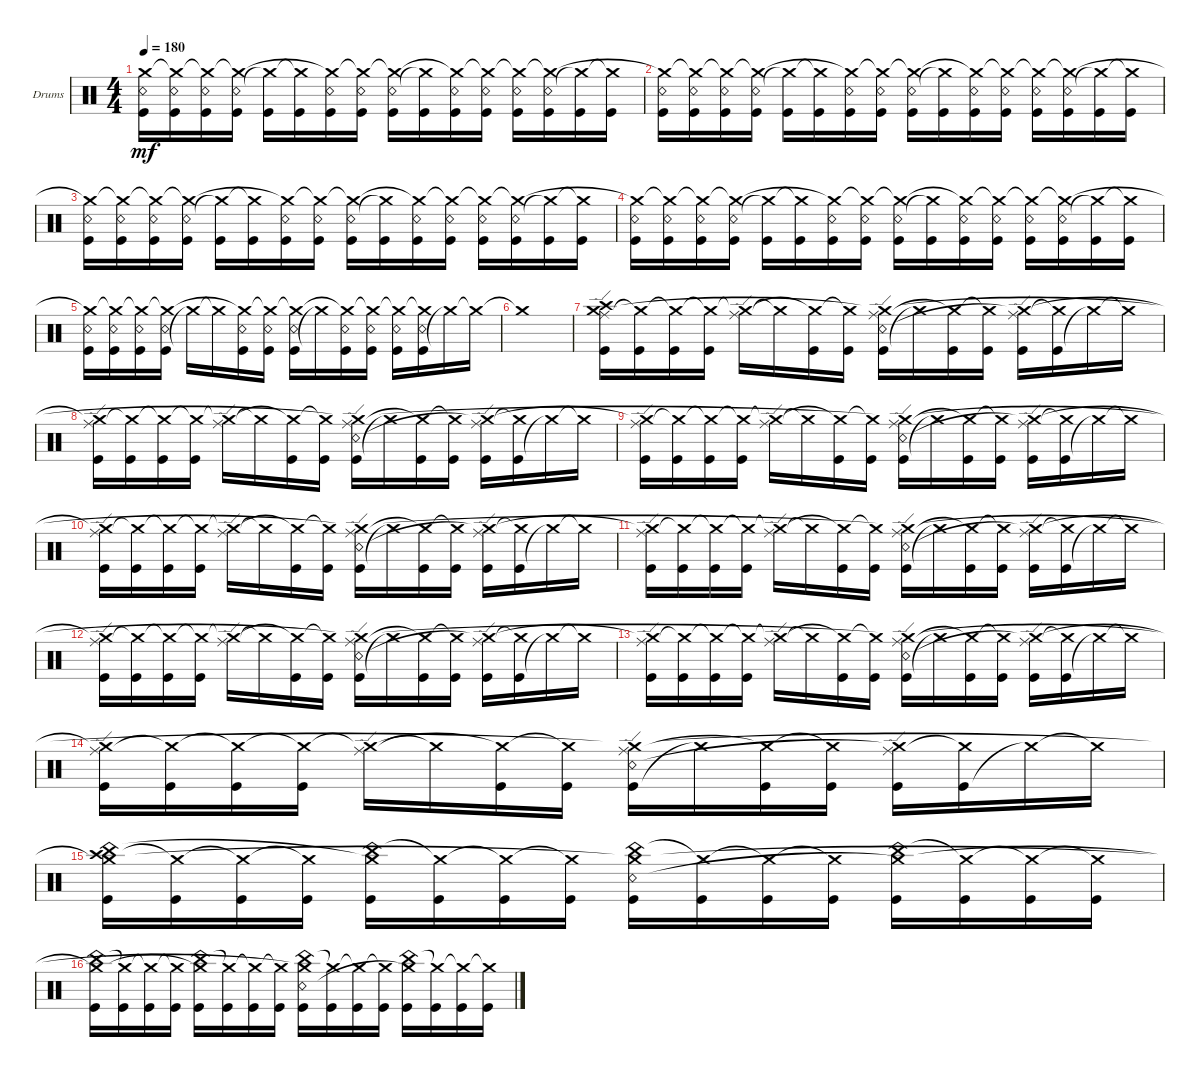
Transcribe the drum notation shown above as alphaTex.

\defaultSystemsLayout 4
\bracketExtendMode groupsimilarinstruments
\firstSystemTrackNameOrientation horizontal
\otherSystemsTrackNameOrientation horizontal
\track ("Drumkit" "Drums") {instrument percussion}
\staff {score}
\articulation defaults
\ts (4 4)
\tempo 180
\clef neutral
\ks c
("Kick (hit)" "Snare (rim shot)" "Crash medium (hit)"{t}).16{dy mf} ("Kick (hit)" "Snare (rim shot)" "Crash medium (hit)"{t}).16 ("Kick (hit)" "Snare (rim shot)" "Crash medium (hit)"{t}).16 ("Kick (hit)" "Snare (rim shot)" "Crash medium (hit)"{t}).16 ("Kick (hit)" "Crash medium (hit)"{t}).16 ("Kick (hit)" "Crash medium (hit)"{t}).16 ("Kick (hit)" "Snare (rim shot)" "Crash medium (hit)"{t}).16 ("Kick (hit)" "Snare (rim shot)" "Crash medium (hit)"{t}).16 ("Kick (hit)" "Snare (rim shot)" "Crash medium (hit)"{t}).16 ("Kick (hit)" "Crash medium (hit)"{t}).16 ("Kick (hit)" "Snare (rim shot)" "Crash medium (hit)"{t}).16 ("Kick (hit)" "Snare (rim shot)" "Crash medium (hit)"{t}).16 ("Kick (hit)" "Snare (rim shot)" "Crash medium (hit)"{t}).16 ("Kick (hit)" "Snare (rim shot)" "Crash medium (hit)"{t}).16 ("Kick (hit)" "Crash medium (hit)"{t}).16 ("Kick (hit)" "Crash medium (hit)"{t}).16 |
("Kick (hit)" "Snare (rim shot)" "Crash medium (hit)"{t}).16 ("Kick (hit)" "Snare (rim shot)" "Crash medium (hit)"{t}).16 ("Kick (hit)" "Snare (rim shot)" "Crash medium (hit)"{t}).16 ("Kick (hit)" "Snare (rim shot)" "Crash medium (hit)"{t}).16 ("Kick (hit)" "Crash medium (hit)"{t}).16 ("Kick (hit)" "Crash medium (hit)"{t}).16 ("Kick (hit)" "Snare (rim shot)" "Crash medium (hit)"{t}).16 ("Kick (hit)" "Snare (rim shot)" "Crash medium (hit)"{t}).16 ("Kick (hit)" "Snare (rim shot)" "Crash medium (hit)"{t}).16 ("Kick (hit)" "Crash medium (hit)"{t}).16 ("Kick (hit)" "Snare (rim shot)" "Crash medium (hit)"{t}).16 ("Kick (hit)" "Snare (rim shot)" "Crash medium (hit)"{t}).16 ("Kick (hit)" "Snare (rim shot)" "Crash medium (hit)"{t}).16 ("Kick (hit)" "Snare (rim shot)" "Crash medium (hit)"{t}).16 ("Kick (hit)" "Crash medium (hit)"{t}).16 ("Kick (hit)" "Crash medium (hit)"{t}).16 |
("Kick (hit)" "Snare (rim shot)" "Crash medium (hit)"{t}).16 ("Kick (hit)" "Snare (rim shot)" "Crash medium (hit)"{t}).16 ("Kick (hit)" "Snare (rim shot)" "Crash medium (hit)"{t}).16 ("Kick (hit)" "Snare (rim shot)" "Crash medium (hit)"{t}).16 ("Kick (hit)" "Crash medium (hit)"{t}).16 ("Kick (hit)" "Crash medium (hit)"{t}).16 ("Kick (hit)" "Snare (rim shot)" "Crash medium (hit)"{t}).16 ("Kick (hit)" "Snare (rim shot)" "Crash medium (hit)"{t}).16 ("Kick (hit)" "Snare (rim shot)" "Crash medium (hit)"{t}).16 ("Kick (hit)" "Crash medium (hit)"{t}).16 ("Kick (hit)" "Snare (rim shot)" "Crash medium (hit)"{t}).16 ("Kick (hit)" "Snare (rim shot)" "Crash medium (hit)"{t}).16 ("Kick (hit)" "Snare (rim shot)" "Crash medium (hit)"{t}).16 ("Kick (hit)" "Snare (rim shot)" "Crash medium (hit)"{t}).16 ("Kick (hit)" "Crash medium (hit)"{t}).16 ("Kick (hit)" "Crash medium (hit)"{t}).16 |
("Kick (hit)" "Snare (rim shot)" "Crash medium (hit)"{t}).16 ("Kick (hit)" "Snare (rim shot)" "Crash medium (hit)"{t}).16 ("Kick (hit)" "Snare (rim shot)" "Crash medium (hit)"{t}).16 ("Kick (hit)" "Snare (rim shot)" "Crash medium (hit)"{t}).16 ("Kick (hit)" "Crash medium (hit)"{t}).16 ("Kick (hit)" "Crash medium (hit)"{t}).16 ("Kick (hit)" "Snare (rim shot)" "Crash medium (hit)"{t}).16 ("Kick (hit)" "Snare (rim shot)" "Crash medium (hit)"{t}).16 ("Kick (hit)" "Snare (rim shot)" "Crash medium (hit)"{t}).16 ("Kick (hit)" "Crash medium (hit)"{t}).16 ("Kick (hit)" "Snare (rim shot)" "Crash medium (hit)"{t}).16 ("Kick (hit)" "Snare (rim shot)" "Crash medium (hit)"{t}).16 ("Kick (hit)" "Snare (rim shot)" "Crash medium (hit)"{t}).16 ("Kick (hit)" "Snare (rim shot)" "Crash medium (hit)"{t}).16 ("Kick (hit)" "Crash medium (hit)"{t}).16 ("Kick (hit)" "Crash medium (hit)"{t}).16 |
("Kick (hit)" "Snare (rim shot)" "Crash medium (hit)"{t}).16 ("Kick (hit)" "Snare (rim shot)" "Crash medium (hit)"{t}).16 ("Kick (hit)" "Snare (rim shot)" "Crash medium (hit)"{t}).16 ("Kick (hit)" "Snare (rim shot)" "Crash medium (hit)"{t}).16 "Crash medium (hit)"{t}.16 "Crash medium (hit)"{t}.16 ("Kick (hit)" "Snare (rim shot)" "Crash medium (hit)"{t}).16 ("Kick (hit)" "Snare (rim shot)" "Crash medium (hit)"{t}).16 ("Kick (hit)" "Snare (rim shot)" "Crash medium (hit)"{t}).16 "Crash medium (hit)"{t}.16 ("Kick (hit)" "Snare (rim shot)" "Crash medium (hit)"{t}).16 ("Kick (hit)" "Snare (rim shot)" "Crash medium (hit)"{t}).16 ("Kick (hit)" "Snare (rim shot)" "Crash medium (hit)"{t}).16 ("Kick (hit)" "Snare (rim shot)" "Crash medium (hit)"{t}).16 "Crash medium (hit)"{t}.16 "Crash medium (hit)"{t}.16 |
"Crash medium (hit)"{t}.1 |
("Kick (hit)" "Ride (edge)" "Crash high (hit)" "Crash medium (hit)").16 ("Kick (hit)" "Crash medium (hit)"{t}).16 ("Kick (hit)" "Crash medium (hit)"{t}).16 ("Kick (hit)" "Crash medium (hit)"{t}).16 ("Ride (edge)" "Crash medium (hit)"{t}).16 "Crash medium (hit)"{t}.16 ("Kick (hit)" "Crash medium (hit)"{t}).16 ("Kick (hit)" "Crash medium (hit)"{t}).16 ("Kick (hit)" "Ride (edge)" "Snare (rim shot)" "Crash medium (hit)"{t}).16 "Crash medium (hit)"{t}.16 ("Kick (hit)" "Crash medium (hit)"{t}).16 ("Kick (hit)" "Crash medium (hit)"{t}).16 ("Kick (hit)" "Ride (edge)" "Crash medium (hit)"{t}).16 ("Kick (hit)" "Crash medium (hit)"{t}).16 "Crash medium (hit)"{t}.16 "Crash medium (hit)"{t}.16 |
("Kick (hit)" "Ride (edge)" "Crash medium (hit)"{t}).16 ("Kick (hit)" "Crash medium (hit)"{t}).16 ("Kick (hit)" "Crash medium (hit)"{t}).16 ("Kick (hit)" "Crash medium (hit)"{t}).16 ("Ride (edge)" "Crash medium (hit)"{t}).16 "Crash medium (hit)"{t}.16 ("Kick (hit)" "Crash medium (hit)"{t}).16 ("Kick (hit)" "Crash medium (hit)"{t}).16 ("Kick (hit)" "Ride (edge)" "Snare (rim shot)" "Crash medium (hit)"{t}).16 "Crash medium (hit)"{t}.16 ("Kick (hit)" "Crash medium (hit)"{t}).16 ("Kick (hit)" "Crash medium (hit)"{t}).16 ("Kick (hit)" "Ride (edge)" "Crash medium (hit)"{t}).16 ("Kick (hit)" "Crash medium (hit)"{t}).16 "Crash medium (hit)"{t}.16 "Crash medium (hit)"{t}.16 |
("Kick (hit)" "Ride (edge)" "Crash medium (hit)"{t}).16 ("Kick (hit)" "Crash medium (hit)"{t}).16 ("Kick (hit)" "Crash medium (hit)"{t}).16 ("Kick (hit)" "Crash medium (hit)"{t}).16 ("Ride (edge)" "Crash medium (hit)"{t}).16 "Crash medium (hit)"{t}.16 ("Kick (hit)" "Crash medium (hit)"{t}).16 ("Kick (hit)" "Crash medium (hit)"{t}).16 ("Kick (hit)" "Ride (edge)" "Snare (rim shot)" "Crash medium (hit)"{t}).16 "Crash medium (hit)"{t}.16 ("Kick (hit)" "Crash medium (hit)"{t}).16 ("Kick (hit)" "Crash medium (hit)"{t}).16 ("Kick (hit)" "Ride (edge)" "Crash medium (hit)"{t}).16 ("Kick (hit)" "Crash medium (hit)"{t}).16 "Crash medium (hit)"{t}.16 "Crash medium (hit)"{t}.16 |
("Kick (hit)" "Ride (edge)" "Crash medium (hit)"{t}).16 ("Kick (hit)" "Crash medium (hit)"{t}).16 ("Kick (hit)" "Crash medium (hit)"{t}).16 ("Kick (hit)" "Crash medium (hit)"{t}).16 ("Ride (edge)" "Crash medium (hit)"{t}).16 "Crash medium (hit)"{t}.16 ("Kick (hit)" "Crash medium (hit)"{t}).16 ("Kick (hit)" "Crash medium (hit)"{t}).16 ("Kick (hit)" "Ride (edge)" "Snare (rim shot)" "Crash medium (hit)"{t}).16 "Crash medium (hit)"{t}.16 ("Kick (hit)" "Crash medium (hit)"{t}).16 ("Kick (hit)" "Crash medium (hit)"{t}).16 ("Kick (hit)" "Ride (edge)" "Crash medium (hit)"{t}).16 ("Kick (hit)" "Crash medium (hit)"{t}).16 "Crash medium (hit)"{t}.16 "Crash medium (hit)"{t}.16 |
("Kick (hit)" "Ride (edge)" "Crash medium (hit)"{t}).16 ("Kick (hit)" "Crash medium (hit)"{t}).16 ("Kick (hit)" "Crash medium (hit)"{t}).16 ("Kick (hit)" "Crash medium (hit)"{t}).16 ("Ride (edge)" "Crash medium (hit)"{t}).16 "Crash medium (hit)"{t}.16 ("Kick (hit)" "Crash medium (hit)"{t}).16 ("Kick (hit)" "Crash medium (hit)"{t}).16 ("Kick (hit)" "Ride (edge)" "Snare (rim shot)" "Crash medium (hit)"{t}).16 "Crash medium (hit)"{t}.16 ("Kick (hit)" "Crash medium (hit)"{t}).16 ("Kick (hit)" "Crash medium (hit)"{t}).16 ("Kick (hit)" "Ride (edge)" "Crash medium (hit)"{t}).16 ("Kick (hit)" "Crash medium (hit)"{t}).16 "Crash medium (hit)"{t}.16 "Crash medium (hit)"{t}.16 |
("Kick (hit)" "Ride (edge)" "Crash medium (hit)"{t}).16 ("Kick (hit)" "Crash medium (hit)"{t}).16 ("Kick (hit)" "Crash medium (hit)"{t}).16 ("Kick (hit)" "Crash medium (hit)"{t}).16 ("Ride (edge)" "Crash medium (hit)"{t}).16 "Crash medium (hit)"{t}.16 ("Kick (hit)" "Crash medium (hit)"{t}).16 ("Kick (hit)" "Crash medium (hit)"{t}).16 ("Kick (hit)" "Ride (edge)" "Snare (rim shot)" "Crash medium (hit)"{t}).16 "Crash medium (hit)"{t}.16 ("Kick (hit)" "Crash medium (hit)"{t}).16 ("Kick (hit)" "Crash medium (hit)"{t}).16 ("Kick (hit)" "Ride (edge)" "Crash medium (hit)"{t}).16 ("Kick (hit)" "Crash medium (hit)"{t}).16 "Crash medium (hit)"{t}.16 "Crash medium (hit)"{t}.16 |
("Kick (hit)" "Ride (edge)" "Crash medium (hit)"{t}).16 ("Kick (hit)" "Crash medium (hit)"{t}).16 ("Kick (hit)" "Crash medium (hit)"{t}).16 ("Kick (hit)" "Crash medium (hit)"{t}).16 ("Ride (edge)" "Crash medium (hit)"{t}).16 "Crash medium (hit)"{t}.16 ("Kick (hit)" "Crash medium (hit)"{t}).16 ("Kick (hit)" "Crash medium (hit)"{t}).16 ("Kick (hit)" "Ride (edge)" "Snare (rim shot)" "Crash medium (hit)"{t}).16 "Crash medium (hit)"{t}.16 ("Kick (hit)" "Crash medium (hit)"{t}).16 ("Kick (hit)" "Crash medium (hit)"{t}).16 ("Kick (hit)" "Ride (edge)" "Crash medium (hit)"{t}).16 ("Kick (hit)" "Crash medium (hit)"{t}).16 "Crash medium (hit)"{t}.16 "Crash medium (hit)"{t}.16 |
("Kick (hit)" "Ride (edge)" "Crash medium (hit)"{t}).16 ("Kick (hit)" "Crash medium (hit)"{t}).16 ("Kick (hit)" "Crash medium (hit)"{t}).16 ("Kick (hit)" "Crash medium (hit)"{t}).16 ("Ride (edge)" "Crash medium (hit)"{t}).16 "Crash medium (hit)"{t}.16 ("Kick (hit)" "Crash medium (hit)"{t}).16 ("Kick (hit)" "Crash medium (hit)"{t}).16 ("Kick (hit)" "Ride (edge)" "Snare (rim shot)" "Crash medium (hit)"{t}).16 "Crash medium (hit)"{t}.16 ("Kick (hit)" "Crash medium (hit)"{t}).16 ("Kick (hit)" "Crash medium (hit)"{t}).16 ("Kick (hit)" "Ride (edge)" "Crash medium (hit)"{t}).16 ("Kick (hit)" "Crash medium (hit)"{t}).16 "Crash medium (hit)"{t}.16 "Crash medium (hit)"{t}.16 |
("Kick (hit)" "Crash high (hit)" "China (hit)" "Crash medium (hit)"{t}).16 ("Kick (hit)" "Crash medium (hit)"{t}).16 ("Kick (hit)" "Crash medium (hit)"{t}).16 ("Kick (hit)" "Crash medium (hit)"{t}).16 ("Kick (hit)" "China (hit)" "Crash medium (hit)"{t}).16 ("Kick (hit)" "Crash medium (hit)"{t}).16 ("Kick (hit)" "Crash medium (hit)"{t}).16 ("Kick (hit)" "Crash medium (hit)"{t}).16 ("Kick (hit)" "China (hit)" "Snare (rim shot)" "Crash medium (hit)"{t}).16 ("Kick (hit)" "Crash medium (hit)"{t}).16 ("Kick (hit)" "Crash medium (hit)"{t}).16 ("Kick (hit)" "Crash medium (hit)"{t}).16 ("Kick (hit)" "China (hit)" "Crash medium (hit)"{t}).16 ("Kick (hit)" "Crash medium (hit)"{t}).16 ("Kick (hit)" "Crash medium (hit)"{t}).16 ("Kick (hit)" "Crash medium (hit)"{t}).16 |
("Kick (hit)" "China (hit)" "Crash medium (hit)"{t}).16 ("Kick (hit)" "Crash medium (hit)"{t}).16 ("Kick (hit)" "Crash medium (hit)"{t}).16 ("Kick (hit)" "Crash medium (hit)"{t}).16 ("Kick (hit)" "China (hit)" "Crash medium (hit)"{t}).16 ("Kick (hit)" "Crash medium (hit)"{t}).16 ("Kick (hit)" "Crash medium (hit)"{t}).16 ("Kick (hit)" "Crash medium (hit)"{t}).16 ("Kick (hit)" "China (hit)" "Snare (rim shot)" "Crash medium (hit)"{t}).16 ("Kick (hit)" "Crash medium (hit)"{t}).16 ("Kick (hit)" "Crash medium (hit)"{t}).16 ("Kick (hit)" "Crash medium (hit)"{t}).16 ("Kick (hit)" "China (hit)" "Crash medium (hit)"{t}).16 ("Kick (hit)" "Crash medium (hit)"{t}).16 ("Kick (hit)" "Crash medium (hit)"{t}).16 ("Kick (hit)" "Crash medium (hit)"{t}).16
